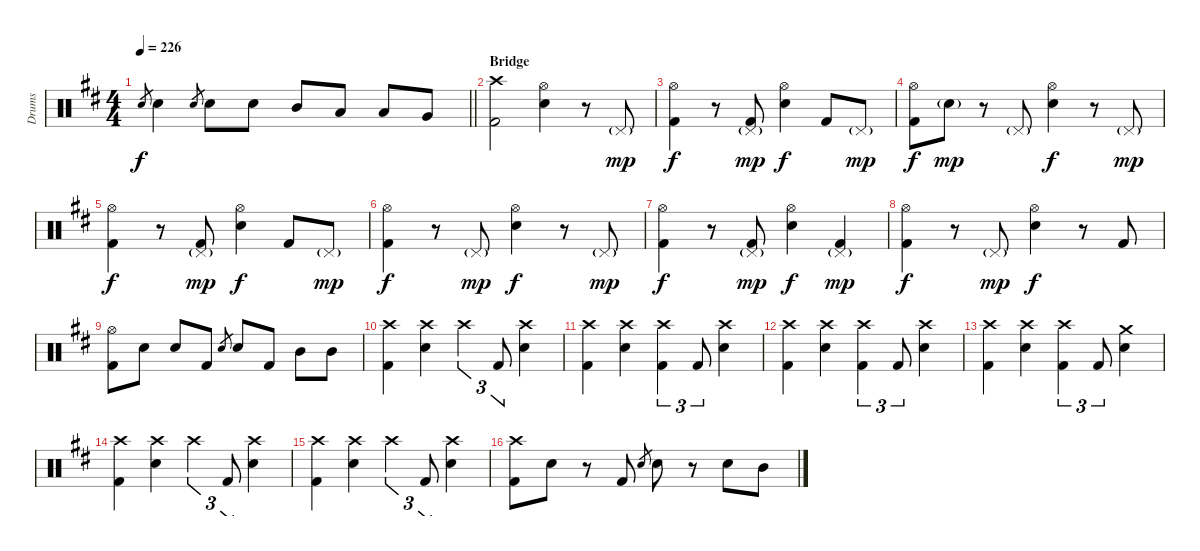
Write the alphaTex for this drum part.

\track ("Drums" "Drums") {instrument percussion}
\staff {score}
\articulation defaults
\ts (4 4)
\tempo 226
\clef neutral
\barLineRight lightlight
\ks d "Snare (hit) 2".8{gr dy f} "Snare (hit) 2".4 "Snare (hit) 2".8{gr} "Snare (hit) 2".8 "Snare (hit) 2".8 "Mid Tom (hit)".8 "Low Tom (hit)".8 "Low Tom (hit)".8 "Very Low Tom (hit)".8
|
\section ("" "Bridge")
("Crash high (hit)" "Kick (hit) 2").2 ("Hi-Hat (open)" "Snare (hit) 2").4 r.8 "Pedal Hi-Hat (hit)"{g}.8{dy mp} |
("Hi-Hat (open)" "Kick (hit) 2").4{dy f} r.8 ("Pedal Hi-Hat (hit)"{g} "Kick (hit) 2").8{dy mp} ("Hi-Hat (open)" "Snare (hit) 2").4{dy f} "Kick (hit) 2".8 "Pedal Hi-Hat (hit)"{g}.8{dy mp} |
("Hi-Hat (open)" "Kick (hit) 2").8{dy f} "Snare (hit) 2"{g}.8{dy mp} r.8 "Pedal Hi-Hat (hit)"{g}.8 ("Hi-Hat (open)" "Snare (hit) 2").4{dy f} r.8 "Pedal Hi-Hat (hit)"{g}.8{dy mp} |
("Hi-Hat (open)" "Kick (hit) 2").4{dy f} r.8 ("Pedal Hi-Hat (hit)"{g} "Kick (hit) 2").8{dy mp} ("Hi-Hat (open)" "Snare (hit) 2").4{dy f} "Kick (hit) 2".8 "Pedal Hi-Hat (hit)"{g}.8{dy mp} |
("Hi-Hat (open)" "Kick (hit) 2").4{dy f} r.8 "Pedal Hi-Hat (hit)"{g}.8{dy mp} ("Hi-Hat (open)" "Snare (hit) 2").4{dy f} r.8 "Pedal Hi-Hat (hit)"{g}.8{dy mp} |
("Hi-Hat (open)" "Kick (hit) 2").4{dy f} r.8 ("Pedal Hi-Hat (hit)"{g} "Kick (hit) 2").8{dy mp} ("Hi-Hat (open)" "Snare (hit) 2").4{dy f} ("Pedal Hi-Hat (hit)"{g} "Kick (hit) 2").4{dy mp} |
("Hi-Hat (open)" "Kick (hit) 2").4{dy f} r.8 "Pedal Hi-Hat (hit)"{g}.8{dy mp} ("Hi-Hat (open)" "Snare (hit) 2").4{dy f} r.8 "Kick (hit) 2".8 |
("Hi-Hat (open)" "Kick (hit) 2").8 "Snare (hit) 2".8 "Snare (hit) 2".8 "Kick (hit) 2".8 "Snare (hit) 2".8{gr} "Snare (hit) 2".8 "Kick (hit) 2".8 "Mid Tom (hit)".8 "Mid Tom (hit)".8 |
("Crash high (hit)" "Kick (hit) 2").4 ("Crash high (hit)" "Snare (hit) 2").4 "Crash high (hit)".4{tu (3 2)} "Kick (hit) 2".8{tu (3 2)} ("Crash high (hit)" "Snare (hit) 2").4 |
("Crash high (hit)" "Kick (hit) 2").4 ("Crash high (hit)" "Snare (hit) 2").4 ("Crash high (hit)" "Kick (hit) 2").4{tu (3 2)} "Kick (hit) 2".8{tu (3 2)} ("Crash high (hit)" "Snare (hit) 2").4 |
("Crash high (hit)" "Kick (hit) 2").4 ("Crash high (hit)" "Snare (hit) 2").4 ("Crash high (hit)" "Kick (hit) 2").4{tu (3 2)} "Kick (hit) 2".8{tu (3 2)} ("Crash high (hit)" "Snare (hit) 2").4 |
("Crash high (hit)" "Kick (hit) 2").4 ("Crash high (hit)" "Snare (hit) 2").4 ("Crash high (hit)" "Kick (hit) 2").4{tu (3 2)} "Kick (hit) 2".8{tu (3 2)} ("Crash medium (hit)" "Snare (hit) 2").4 |
("Crash high (hit)" "Kick (hit) 2").4 ("Crash high (hit)" "Snare (hit) 2").4 "Crash high (hit)".4{tu (3 2)} "Kick (hit) 2".8{tu (3 2)} ("Crash high (hit)" "Snare (hit) 2").4 |
("Crash high (hit)" "Kick (hit) 2").4 ("Crash high (hit)" "Snare (hit) 2").4 "Crash high (hit)".4{tu (3 2)} "Kick (hit) 2".8{tu (3 2)} ("Crash high (hit)" "Snare (hit) 2").4 |
("Crash high (hit)" "Kick (hit) 2").8 "Snare (hit) 2".8 r.8 "Kick (hit) 2".8 "Snare (hit) 2".8{gr} "Snare (hit) 2".8 r.8 "Snare (hit) 2".8 "Mid Tom (hit)".8
